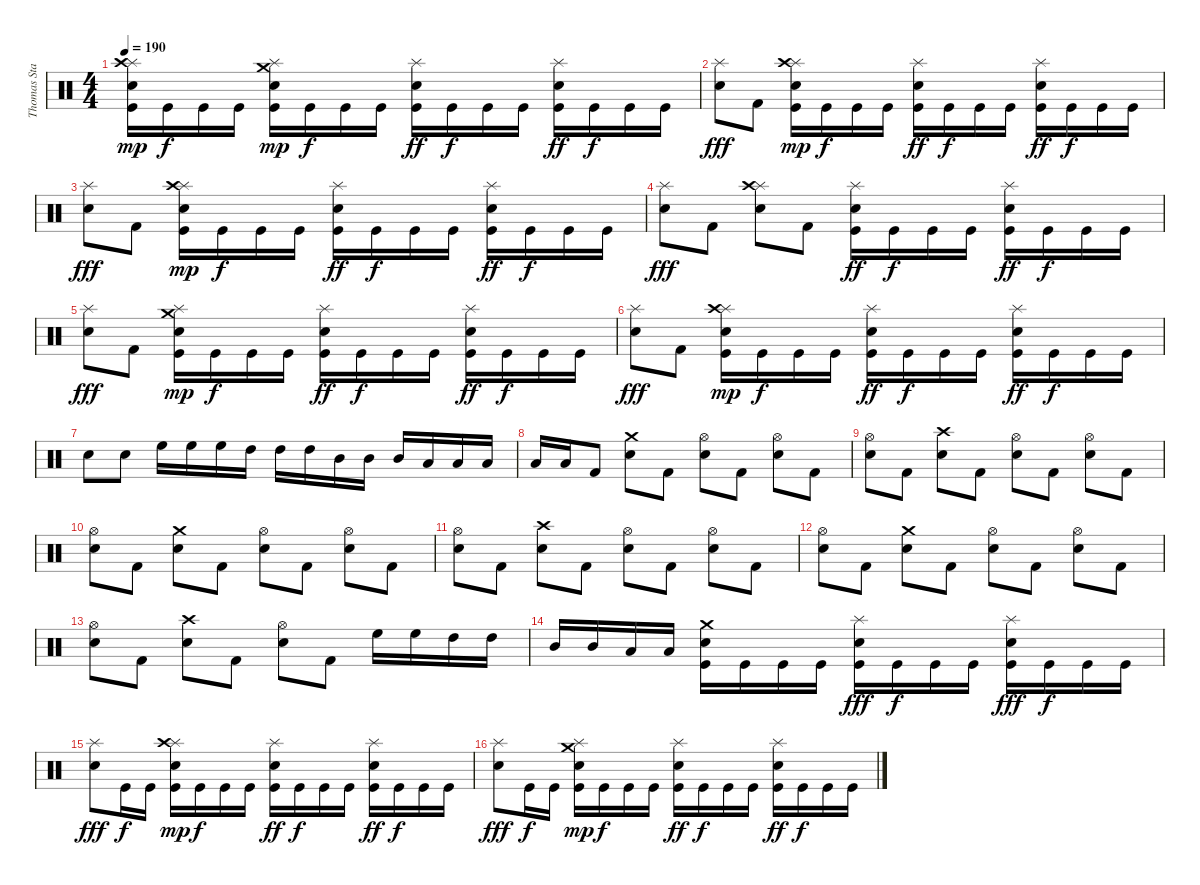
\track ("Thomas Stauch" "Thomas Sta") {instrument percussion}
\staff {score}
\articulation defaults
\ts (4 4)
\tempo 190
\clef neutral
\ks c
("Splash (hit)" "Crash high (hit)" "Electric Snare (hit)" "Kick (hit)").16{dy mp} "Kick (hit)".16{dy f} "Kick (hit)".16 "Kick (hit)".16 ("Splash (hit)" "Crash medium (hit)" "Electric Snare (hit)" "Kick (hit)").16{dy mp} "Kick (hit)".16{dy f} "Kick (hit)".16 "Kick (hit)".16 ("Splash (hit)" "Electric Snare (hit)" "Kick (hit)").16{dy ff} "Kick (hit)".16{dy f} "Kick (hit)".16 "Kick (hit)".16 ("Splash (hit)" "Electric Snare (hit)" "Kick (hit)").16{dy ff} "Kick (hit)".16{dy f} "Kick (hit)".16 "Kick (hit)".16 |
("Splash (hit)" "Electric Snare (hit)").8{dy fff} "Kick (hit) 2".8 ("Splash (hit)" "Crash high (hit)" "Electric Snare (hit)" "Kick (hit)").16{dy mp} "Kick (hit)".16{dy f} "Kick (hit)".16 "Kick (hit)".16 ("Splash (hit)" "Electric Snare (hit)" "Kick (hit)").16{dy ff} "Kick (hit)".16{dy f} "Kick (hit)".16 "Kick (hit)".16 ("Splash (hit)" "Electric Snare (hit)" "Kick (hit)").16{dy ff} "Kick (hit)".16{dy f} "Kick (hit)".16 "Kick (hit)".16 |
("Splash (hit)" "Electric Snare (hit)").8{dy fff} "Kick (hit) 2".8 ("Splash (hit)" "Crash high (hit)" "Electric Snare (hit)" "Kick (hit)").16{dy mp} "Kick (hit)".16{dy f} "Kick (hit)".16 "Kick (hit)".16 ("Splash (hit)" "Electric Snare (hit)" "Kick (hit)").16{dy ff} "Kick (hit)".16{dy f} "Kick (hit)".16 "Kick (hit)".16 ("Splash (hit)" "Electric Snare (hit)" "Kick (hit)").16{dy ff} "Kick (hit)".16{dy f} "Kick (hit)".16 "Kick (hit)".16 |
("Splash (hit)" "Electric Snare (hit)").8{dy fff} "Kick (hit) 2".8 ("Splash (hit)" "Crash high (hit)" "Electric Snare (hit)").8 "Kick (hit) 2".8 ("Splash (hit)" "Electric Snare (hit)" "Kick (hit)").16{dy ff} "Kick (hit)".16{dy f} "Kick (hit)".16 "Kick (hit)".16 ("Splash (hit)" "Electric Snare (hit)" "Kick (hit)").16{dy ff} "Kick (hit)".16{dy f} "Kick (hit)".16 "Kick (hit)".16 |
("Splash (hit)" "Electric Snare (hit)").8{dy fff} "Kick (hit) 2".8 ("Splash (hit)" "Crash medium (hit)" "Electric Snare (hit)" "Kick (hit)").16{dy mp} "Kick (hit)".16{dy f} "Kick (hit)".16 "Kick (hit)".16 ("Splash (hit)" "Electric Snare (hit)" "Kick (hit)").16{dy ff} "Kick (hit)".16{dy f} "Kick (hit)".16 "Kick (hit)".16 ("Splash (hit)" "Electric Snare (hit)" "Kick (hit)").16{dy ff} "Kick (hit)".16{dy f} "Kick (hit)".16 "Kick (hit)".16 |
("Splash (hit)" "Electric Snare (hit)").8{dy fff} "Kick (hit) 2".8 ("Splash (hit)" "Crash high (hit)" "Electric Snare (hit)" "Kick (hit)").16{dy mp} "Kick (hit)".16{dy f} "Kick (hit)".16 "Kick (hit)".16 ("Splash (hit)" "Electric Snare (hit)" "Kick (hit)").16{dy ff} "Kick (hit)".16{dy f} "Kick (hit)".16 "Kick (hit)".16 ("Splash (hit)" "Electric Snare (hit)" "Kick (hit)").16{dy ff} "Kick (hit)".16{dy f} "Kick (hit)".16 "Kick (hit)".16 |
"Electric Snare (hit)".8 "Electric Snare (hit)".8 "High Floor Tom (hit)".16 "High Floor Tom (hit)".16 "High Floor Tom (hit)".16 "High Tom (hit)".16 "High Tom (hit)".16 "High Tom (hit)".16 "Mid Tom (hit)".16 "Mid Tom (hit)".16 "Mid Tom (hit)".16 "Low Tom (hit)".16 "Low Tom (hit)".16 "Low Tom (hit)".16 |
"Low Floor Tom (hit)".16 "Low Floor Tom (hit)".16 "Kick (hit) 2".8 ("Crash medium (hit)" "Electric Snare (hit)").8 "Kick (hit) 2".8 ("Hi-Hat (open)" "Electric Snare (hit)").8 "Kick (hit) 2".8 ("Hi-Hat (open)" "Electric Snare (hit)").8 "Kick (hit) 2".8 |
("Hi-Hat (open)" "Electric Snare (hit)").8 "Kick (hit) 2".8 ("Crash high (hit)" "Electric Snare (hit)").8 "Kick (hit) 2".8 ("Hi-Hat (open)" "Electric Snare (hit)").8 "Kick (hit) 2".8 ("Hi-Hat (open)" "Electric Snare (hit)").8 "Kick (hit) 2".8 |
("Hi-Hat (open)" "Electric Snare (hit)").8 "Kick (hit) 2".8 ("Crash medium (hit)" "Electric Snare (hit)").8 "Kick (hit) 2".8 ("Hi-Hat (open)" "Electric Snare (hit)").8 "Kick (hit) 2".8 ("Hi-Hat (open)" "Electric Snare (hit)").8 "Kick (hit) 2".8 |
("Hi-Hat (open)" "Electric Snare (hit)").8 "Kick (hit) 2".8 ("Crash high (hit)" "Electric Snare (hit)").8 "Kick (hit) 2".8 ("Hi-Hat (open)" "Electric Snare (hit)").8 "Kick (hit) 2".8 ("Hi-Hat (open)" "Electric Snare (hit)").8 "Kick (hit) 2".8 |
("Hi-Hat (open)" "Electric Snare (hit)").8 "Kick (hit) 2".8 ("Crash medium (hit)" "Electric Snare (hit)").8 "Kick (hit) 2".8 ("Hi-Hat (open)" "Electric Snare (hit)").8 "Kick (hit) 2".8 ("Hi-Hat (open)" "Electric Snare (hit)").8 "Kick (hit) 2".8 |
("Hi-Hat (open)" "Electric Snare (hit)").8 "Kick (hit) 2".8 ("Crash high (hit)" "Electric Snare (hit)").8 "Kick (hit) 2".8 ("Hi-Hat (open)" "Electric Snare (hit)").8 "Kick (hit) 2".8 "High Floor Tom (hit)".16 "High Floor Tom (hit)".16 "High Tom (hit)".16 "High Tom (hit)".16 |
"Mid Tom (hit)".16 "Mid Tom (hit)".16 "Low Tom (hit)".16 "Low Tom (hit)".16 ("Crash medium (hit)" "Electric Snare (hit)" "Kick (hit)").16 "Kick (hit)".16 "Kick (hit)".16 "Kick (hit)".16 ("Splash (hit)" "Electric Snare (hit)" "Kick (hit)").16{dy fff} "Kick (hit)".16{dy f} "Kick (hit)".16 "Kick (hit)".16 ("Splash (hit)" "Electric Snare (hit)" "Kick (hit)").16{dy fff} "Kick (hit)".16{dy f} "Kick (hit)".16 "Kick (hit)".16 |
("Splash (hit)" "Electric Snare (hit)").8{dy fff} "Kick (hit)".16{dy f} "Kick (hit)".16 ("Splash (hit)" "Crash high (hit)" "Electric Snare (hit)" "Kick (hit)").16{dy mp} "Kick (hit)".16{dy f} "Kick (hit)".16 "Kick (hit)".16 ("Splash (hit)" "Electric Snare (hit)" "Kick (hit)").16{dy ff} "Kick (hit)".16{dy f} "Kick (hit)".16 "Kick (hit)".16 ("Splash (hit)" "Electric Snare (hit)" "Kick (hit)").16{dy ff} "Kick (hit)".16{dy f} "Kick (hit)".16 "Kick (hit)".16 |
("Splash (hit)" "Electric Snare (hit)").8{dy fff} "Kick (hit)".16{dy f} "Kick (hit)".16 ("Splash (hit)" "Crash medium (hit)" "Electric Snare (hit)" "Kick (hit)").16{dy mp} "Kick (hit)".16{dy f} "Kick (hit)".16 "Kick (hit)".16 ("Splash (hit)" "Electric Snare (hit)" "Kick (hit)").16{dy ff} "Kick (hit)".16{dy f} "Kick (hit)".16 "Kick (hit)".16 ("Splash (hit)" "Electric Snare (hit)" "Kick (hit)").16{dy ff} "Kick (hit)".16{dy f} "Kick (hit)".16 "Kick (hit)".16
